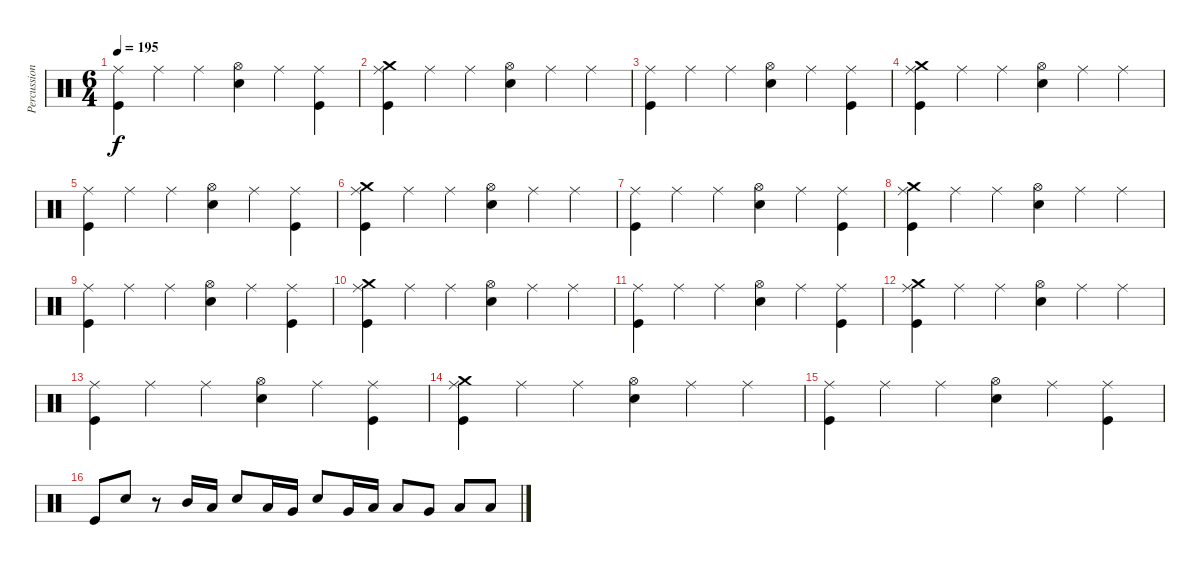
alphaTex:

\track ("Percussion" "Percussion") {instrument percussion}
\staff {score}
\articulation defaults
\ts (6 4)
\tempo 195
\clef neutral
\ks c
("Ride (middle)" "Kick (hit)").4{dy f} "Ride (middle)".4 "Ride (middle)".4 ("Hi-Hat (open)" "Electric Snare (hit)").4 "Ride (middle)".4 ("Ride (middle)" "Kick (hit)").4 |
("Crash medium (hit)" "Ride (middle)" "Kick (hit)").4 "Ride (middle)".4 "Ride (middle)".4 ("Hi-Hat (open)" "Electric Snare (hit)").4 "Ride (middle)".4 "Ride (middle)".4 |
("Ride (middle)" "Kick (hit)").4 "Ride (middle)".4 "Ride (middle)".4 ("Hi-Hat (open)" "Electric Snare (hit)").4 "Ride (middle)".4 ("Ride (middle)" "Kick (hit)").4 |
("Crash medium (hit)" "Ride (middle)" "Kick (hit)").4 "Ride (middle)".4 "Ride (middle)".4 ("Hi-Hat (open)" "Electric Snare (hit)").4 "Ride (middle)".4 "Ride (middle)".4 |
("Ride (middle)" "Kick (hit)").4 "Ride (middle)".4 "Ride (middle)".4 ("Hi-Hat (open)" "Electric Snare (hit)").4 "Ride (middle)".4 ("Ride (middle)" "Kick (hit)").4 |
("Crash medium (hit)" "Ride (middle)" "Kick (hit)").4 "Ride (middle)".4 "Ride (middle)".4 ("Hi-Hat (open)" "Electric Snare (hit)").4 "Ride (middle)".4 "Ride (middle)".4 |
("Ride (middle)" "Kick (hit)").4 "Ride (middle)".4 "Ride (middle)".4 ("Hi-Hat (open)" "Electric Snare (hit)").4 "Ride (middle)".4 ("Ride (middle)" "Kick (hit)").4 |
("Crash medium (hit)" "Ride (middle)" "Kick (hit)").4 "Ride (middle)".4 "Ride (middle)".4 ("Hi-Hat (open)" "Electric Snare (hit)").4 "Ride (middle)".4 "Ride (middle)".4 |
("Ride (middle)" "Kick (hit)").4 "Ride (middle)".4 "Ride (middle)".4 ("Hi-Hat (open)" "Electric Snare (hit)").4 "Ride (middle)".4 ("Ride (middle)" "Kick (hit)").4 |
("Crash medium (hit)" "Ride (middle)" "Kick (hit)").4 "Ride (middle)".4 "Ride (middle)".4 ("Hi-Hat (open)" "Electric Snare (hit)").4 "Ride (middle)".4 "Ride (middle)".4 |
("Ride (middle)" "Kick (hit)").4 "Ride (middle)".4 "Ride (middle)".4 ("Hi-Hat (open)" "Electric Snare (hit)").4 "Ride (middle)".4 ("Ride (middle)" "Kick (hit)").4 |
("Crash medium (hit)" "Ride (middle)" "Kick (hit)").4 "Ride (middle)".4 "Ride (middle)".4 ("Hi-Hat (open)" "Electric Snare (hit)").4 "Ride (middle)".4 "Ride (middle)".4 |
("Ride (middle)" "Kick (hit)").4 "Ride (middle)".4 "Ride (middle)".4 ("Hi-Hat (open)" "Electric Snare (hit)").4 "Ride (middle)".4 ("Ride (middle)" "Kick (hit)").4 |
("Crash medium (hit)" "Ride (middle)" "Kick (hit)").4 "Ride (middle)".4 "Ride (middle)".4 ("Hi-Hat (open)" "Electric Snare (hit)").4 "Ride (middle)".4 "Ride (middle)".4 |
("Ride (middle)" "Kick (hit)").4 "Ride (middle)".4 "Ride (middle)".4 ("Hi-Hat (open)" "Electric Snare (hit)").4 "Ride (middle)".4 ("Ride (middle)" "Kick (hit)").4 |
"Kick (hit)".8 "Electric Snare (hit)".8 r.8 "Mid Tom (hit)".16 "Low Tom (hit)".16 "Electric Snare (hit)".8 "Low Tom (hit)".16 "Very Low Tom (hit)".16 "Electric Snare (hit)".8 "Very Low Tom (hit)".16 "Low Floor Tom (hit)".16 "Low Tom (hit)".8 "Very Low Tom (hit)".8 "Low Floor Tom (hit)".8 "Low Floor Tom (hit)".8
